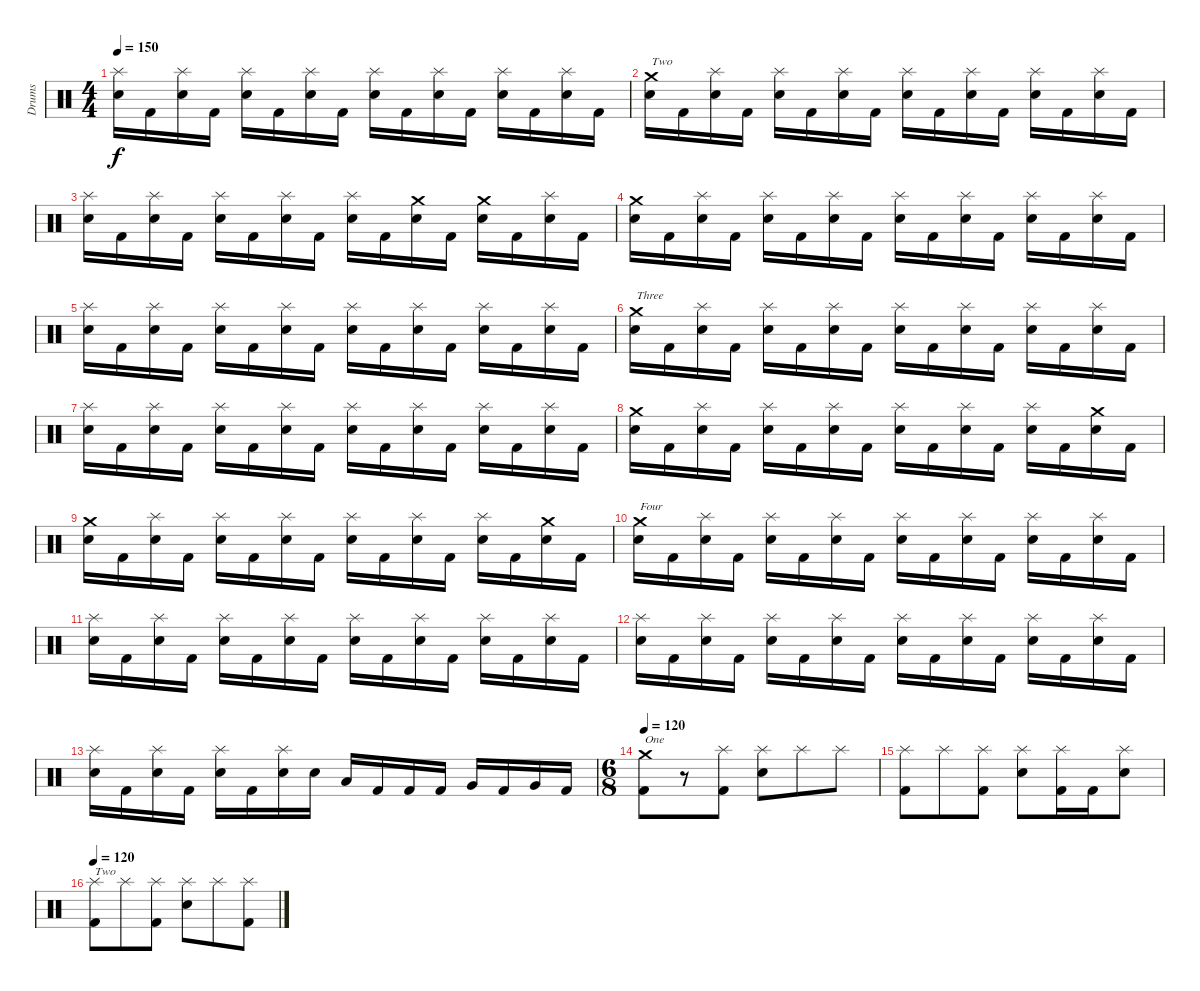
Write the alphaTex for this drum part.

\track ("Drums" "Drums") {instrument percussion}
\staff {score}
\articulation defaults
\ts (4 4)
\tempo 150
\clef neutral
\ks c
("Splash (hit)" "Snare (hit) 2").16{dy f} "Kick (hit) 2".16 ("Splash (hit)" "Snare (hit) 2").16 "Kick (hit) 2".16 ("Splash (hit)" "Snare (hit) 2").16 "Kick (hit) 2".16 ("Splash (hit)" "Snare (hit) 2").16 "Kick (hit) 2".16 ("Splash (hit)" "Snare (hit) 2").16 "Kick (hit) 2".16 ("Splash (hit)" "Snare (hit) 2").16 "Kick (hit) 2".16 ("Splash (hit)" "Snare (hit) 2").16 "Kick (hit) 2".16 ("Splash (hit)" "Snare (hit) 2").16 "Kick (hit) 2".16 |
("Crash medium (hit)" "Snare (hit) 2").16{txt "Two"} "Kick (hit) 2".16 ("Splash (hit)" "Snare (hit) 2").16 "Kick (hit) 2".16 ("Splash (hit)" "Snare (hit) 2").16 "Kick (hit) 2".16 ("Splash (hit)" "Snare (hit) 2").16 "Kick (hit) 2".16 ("Splash (hit)" "Snare (hit) 2").16 "Kick (hit) 2".16 ("Splash (hit)" "Snare (hit) 2").16 "Kick (hit) 2".16 ("Splash (hit)" "Snare (hit) 2").16 "Kick (hit) 2".16 ("Splash (hit)" "Snare (hit) 2").16 "Kick (hit) 2".16 |
("Splash (hit)" "Snare (hit) 2").16 "Kick (hit) 2".16 ("Splash (hit)" "Snare (hit) 2").16 "Kick (hit) 2".16 ("Splash (hit)" "Snare (hit) 2").16 "Kick (hit) 2".16 ("Splash (hit)" "Snare (hit) 2").16 "Kick (hit) 2".16 ("Splash (hit)" "Snare (hit) 2").16 "Kick (hit) 2".16 ("Crash medium (hit)" "Snare (hit) 2").16 "Kick (hit) 2".16 ("Crash medium (hit)" "Snare (hit) 2").16 "Kick (hit) 2".16 ("Splash (hit)" "Snare (hit) 2").16 "Kick (hit) 2".16 |
("Crash medium (hit)" "Snare (hit) 2").16 "Kick (hit) 2".16 ("Splash (hit)" "Snare (hit) 2").16 "Kick (hit) 2".16 ("Splash (hit)" "Snare (hit) 2").16 "Kick (hit) 2".16 ("Splash (hit)" "Snare (hit) 2").16 "Kick (hit) 2".16 ("Splash (hit)" "Snare (hit) 2").16 "Kick (hit) 2".16 ("Splash (hit)" "Snare (hit) 2").16 "Kick (hit) 2".16 ("Splash (hit)" "Snare (hit) 2").16 "Kick (hit) 2".16 ("Splash (hit)" "Snare (hit) 2").16 "Kick (hit) 2".16 |
("Splash (hit)" "Snare (hit) 2").16 "Kick (hit) 2".16 ("Splash (hit)" "Snare (hit) 2").16 "Kick (hit) 2".16 ("Splash (hit)" "Snare (hit) 2").16 "Kick (hit) 2".16 ("Splash (hit)" "Snare (hit) 2").16 "Kick (hit) 2".16 ("Splash (hit)" "Snare (hit) 2").16 "Kick (hit) 2".16 ("Splash (hit)" "Snare (hit) 2").16 "Kick (hit) 2".16 ("Splash (hit)" "Snare (hit) 2").16 "Kick (hit) 2".16 ("Splash (hit)" "Snare (hit) 2").16 "Kick (hit) 2".16 |
("Crash medium (hit)" "Snare (hit) 2").16{txt "Three"} "Kick (hit) 2".16 ("Splash (hit)" "Snare (hit) 2").16 "Kick (hit) 2".16 ("Splash (hit)" "Snare (hit) 2").16 "Kick (hit) 2".16 ("Splash (hit)" "Snare (hit) 2").16 "Kick (hit) 2".16 ("Splash (hit)" "Snare (hit) 2").16 "Kick (hit) 2".16 ("Splash (hit)" "Snare (hit) 2").16 "Kick (hit) 2".16 ("Splash (hit)" "Snare (hit) 2").16 "Kick (hit) 2".16 ("Splash (hit)" "Snare (hit) 2").16 "Kick (hit) 2".16 |
("Splash (hit)" "Snare (hit) 2").16 "Kick (hit) 2".16 ("Splash (hit)" "Snare (hit) 2").16 "Kick (hit) 2".16 ("Splash (hit)" "Snare (hit) 2").16 "Kick (hit) 2".16 ("Splash (hit)" "Snare (hit) 2").16 "Kick (hit) 2".16 ("Splash (hit)" "Snare (hit) 2").16 "Kick (hit) 2".16 ("Splash (hit)" "Snare (hit) 2").16 "Kick (hit) 2".16 ("Splash (hit)" "Snare (hit) 2").16 "Kick (hit) 2".16 ("Splash (hit)" "Snare (hit) 2").16 "Kick (hit) 2".16 |
("Crash medium (hit)" "Snare (hit) 2").16 "Kick (hit) 2".16 ("Splash (hit)" "Snare (hit) 2").16 "Kick (hit) 2".16 ("Splash (hit)" "Snare (hit) 2").16 "Kick (hit) 2".16 ("Splash (hit)" "Snare (hit) 2").16 "Kick (hit) 2".16 ("Splash (hit)" "Snare (hit) 2").16 "Kick (hit) 2".16 ("Splash (hit)" "Snare (hit) 2").16 "Kick (hit) 2".16 ("Splash (hit)" "Snare (hit) 2").16 "Kick (hit) 2".16 ("Crash medium (hit)" "Snare (hit) 2").16 "Kick (hit) 2".16 |
("Crash medium (hit)" "Snare (hit) 2").16 "Kick (hit) 2".16 ("Splash (hit)" "Snare (hit) 2").16 "Kick (hit) 2".16 ("Splash (hit)" "Snare (hit) 2").16 "Kick (hit) 2".16 ("Splash (hit)" "Snare (hit) 2").16 "Kick (hit) 2".16 ("Splash (hit)" "Snare (hit) 2").16 "Kick (hit) 2".16 ("Splash (hit)" "Snare (hit) 2").16 "Kick (hit) 2".16 ("Splash (hit)" "Snare (hit) 2").16 "Kick (hit) 2".16 ("Crash medium (hit)" "Snare (hit) 2").16 "Kick (hit) 2".16 |
("Crash medium (hit)" "Snare (hit) 2").16{txt "Four"} "Kick (hit) 2".16 ("Splash (hit)" "Snare (hit) 2").16 "Kick (hit) 2".16 ("Splash (hit)" "Snare (hit) 2").16 "Kick (hit) 2".16 ("Splash (hit)" "Snare (hit) 2").16 "Kick (hit) 2".16 ("Splash (hit)" "Snare (hit) 2").16 "Kick (hit) 2".16 ("Splash (hit)" "Snare (hit) 2").16 "Kick (hit) 2".16 ("Splash (hit)" "Snare (hit) 2").16 "Kick (hit) 2".16 ("Splash (hit)" "Snare (hit) 2").16 "Kick (hit) 2".16 |
("Splash (hit)" "Snare (hit) 2").16 "Kick (hit) 2".16 ("Splash (hit)" "Snare (hit) 2").16 "Kick (hit) 2".16 ("Splash (hit)" "Snare (hit) 2").16 "Kick (hit) 2".16 ("Splash (hit)" "Snare (hit) 2").16 "Kick (hit) 2".16 ("Splash (hit)" "Snare (hit) 2").16 "Kick (hit) 2".16 ("Splash (hit)" "Snare (hit) 2").16 "Kick (hit) 2".16 ("Splash (hit)" "Snare (hit) 2").16 "Kick (hit) 2".16 ("Splash (hit)" "Snare (hit) 2").16 "Kick (hit) 2".16 |
("Splash (hit)" "Snare (hit) 2").16 "Kick (hit) 2".16 ("Splash (hit)" "Snare (hit) 2").16 "Kick (hit) 2".16 ("Splash (hit)" "Snare (hit) 2").16 "Kick (hit) 2".16 ("Splash (hit)" "Snare (hit) 2").16 "Kick (hit) 2".16 ("Splash (hit)" "Snare (hit) 2").16 "Kick (hit) 2".16 ("Splash (hit)" "Snare (hit) 2").16 "Kick (hit) 2".16 ("Splash (hit)" "Snare (hit) 2").16 "Kick (hit) 2".16 ("Splash (hit)" "Snare (hit) 2").16 "Kick (hit) 2".16 |
("Splash (hit)" "Snare (hit) 2").16 "Kick (hit) 2".16 ("Splash (hit)" "Snare (hit) 2").16 "Kick (hit) 2".16 ("Splash (hit)" "Snare (hit) 2").16 "Kick (hit) 2".16 ("Splash (hit)" "Snare (hit) 2").16 "Snare (hit) 2".16 "Low Tom (hit)".16 "Kick (hit) 2".16 "Kick (hit) 2".16 "Kick (hit) 2".16 "Very Low Tom (hit)".16 "Kick (hit) 2".16 "Very Low Tom (hit)".16 "Kick (hit) 2".16 |
\ts (6 8)
\tempo 120
("Crash medium (hit)" "Kick (hit) 2").8{txt "One"} r.8 ("Splash (hit)" "Kick (hit) 2").8 ("Splash (hit)" "Snare (hit) 2").8 "Splash (hit)".8 "Splash (hit)".8 |
("Splash (hit)" "Kick (hit) 2").8 "Splash (hit)".8 ("Splash (hit)" "Kick (hit) 2").8 ("Splash (hit)" "Snare (hit) 2").8 ("Splash (hit)" "Kick (hit) 2").16 "Kick (hit) 2".16 ("Splash (hit)" "Snare (hit) 2").8 |
\tempo 120
("Splash (hit)" "Kick (hit) 2").8{txt "Two"} "Splash (hit)".8 ("Splash (hit)" "Kick (hit) 2").8 ("Splash (hit)" "Snare (hit) 2").8 "Splash (hit)".8 ("Splash (hit)" "Kick (hit) 2").8
